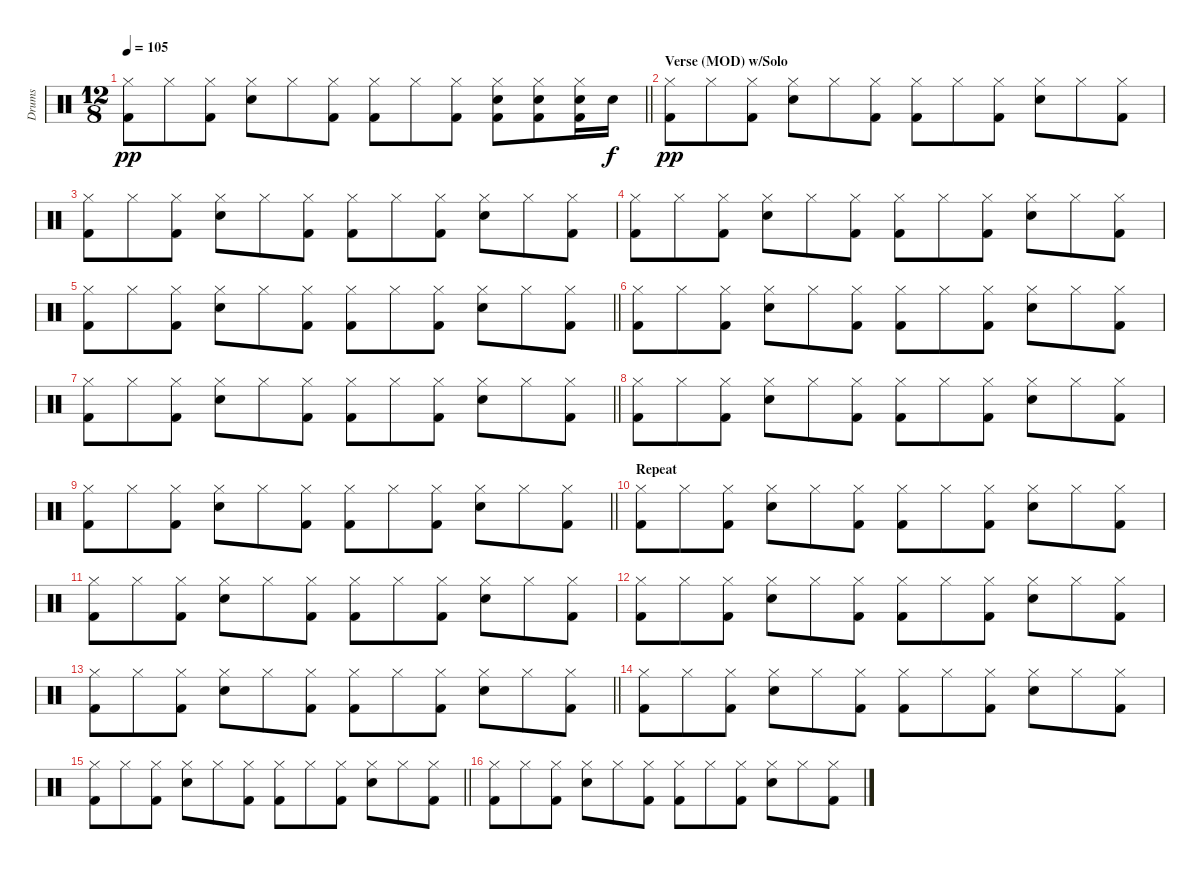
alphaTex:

\track ("Drums" "Drums") {instrument percussion}
\staff
\articulation defaults
\ts (12 8)
\tempo 105
\clef neutral
\barLineRight lightlight
\ks c
("Hi-Hat (closed)" "Kick (hit) 2").8{dy pp} "Hi-Hat (closed)".8 ("Hi-Hat (closed)" "Kick (hit) 2").8 ("Hi-Hat (closed)" "Snare (hit) 2").8 "Hi-Hat (closed)".8 ("Hi-Hat (closed)" "Kick (hit) 2").8 ("Hi-Hat (closed)" "Kick (hit) 2").8 "Hi-Hat (closed)".8 ("Hi-Hat (closed)" "Kick (hit) 2").8 ("Hi-Hat (closed)" "Snare (hit) 2" "Kick (hit) 2").8 ("Hi-Hat (closed)" "Snare (hit) 2" "Kick (hit) 2").8 ("Hi-Hat (closed)" "Snare (hit) 2" "Kick (hit) 2").16 "Snare (hit) 2".16{dy f} |
\section ("" "Verse (MOD) w/Solo")
("Hi-Hat (closed)" "Kick (hit) 2").8{dy pp} "Hi-Hat (closed)".8 ("Hi-Hat (closed)" "Kick (hit) 2").8 ("Hi-Hat (closed)" "Snare (hit) 2").8 "Hi-Hat (closed)".8 ("Hi-Hat (closed)" "Kick (hit) 2").8 ("Hi-Hat (closed)" "Kick (hit) 2").8 "Hi-Hat (closed)".8 ("Hi-Hat (closed)" "Kick (hit) 2").8 ("Hi-Hat (closed)" "Snare (hit) 2").8 "Hi-Hat (closed)".8 ("Hi-Hat (closed)" "Kick (hit) 2").8 |
("Hi-Hat (closed)" "Kick (hit) 2").8 "Hi-Hat (closed)".8 ("Hi-Hat (closed)" "Kick (hit) 2").8 ("Hi-Hat (closed)" "Snare (hit) 2").8 "Hi-Hat (closed)".8 ("Hi-Hat (closed)" "Kick (hit) 2").8 ("Hi-Hat (closed)" "Kick (hit) 2").8 "Hi-Hat (closed)".8 ("Hi-Hat (closed)" "Kick (hit) 2").8 ("Hi-Hat (closed)" "Snare (hit) 2").8 "Hi-Hat (closed)".8 ("Hi-Hat (closed)" "Kick (hit) 2").8 |
("Hi-Hat (closed)" "Kick (hit) 2").8 "Hi-Hat (closed)".8 ("Hi-Hat (closed)" "Kick (hit) 2").8 ("Hi-Hat (closed)" "Snare (hit) 2").8 "Hi-Hat (closed)".8 ("Hi-Hat (closed)" "Kick (hit) 2").8 ("Hi-Hat (closed)" "Kick (hit) 2").8 "Hi-Hat (closed)".8 ("Hi-Hat (closed)" "Kick (hit) 2").8 ("Hi-Hat (closed)" "Snare (hit) 2").8 "Hi-Hat (closed)".8 ("Hi-Hat (closed)" "Kick (hit) 2").8 |
\barLineRight lightlight
("Hi-Hat (closed)" "Kick (hit) 2").8 "Hi-Hat (closed)".8 ("Hi-Hat (closed)" "Kick (hit) 2").8 ("Hi-Hat (closed)" "Snare (hit) 2").8 "Hi-Hat (closed)".8 ("Hi-Hat (closed)" "Kick (hit) 2").8 ("Hi-Hat (closed)" "Kick (hit) 2").8 "Hi-Hat (closed)".8 ("Hi-Hat (closed)" "Kick (hit) 2").8 ("Hi-Hat (closed)" "Snare (hit) 2").8 "Hi-Hat (closed)".8 ("Hi-Hat (closed)" "Kick (hit) 2").8 |
("Hi-Hat (closed)" "Kick (hit) 2").8 "Hi-Hat (closed)".8 ("Hi-Hat (closed)" "Kick (hit) 2").8 ("Hi-Hat (closed)" "Snare (hit) 2").8 "Hi-Hat (closed)".8 ("Hi-Hat (closed)" "Kick (hit) 2").8 ("Hi-Hat (closed)" "Kick (hit) 2").8 "Hi-Hat (closed)".8 ("Hi-Hat (closed)" "Kick (hit) 2").8 ("Hi-Hat (closed)" "Snare (hit) 2").8 "Hi-Hat (closed)".8 ("Hi-Hat (closed)" "Kick (hit) 2").8 |
\barLineRight lightlight
("Hi-Hat (closed)" "Kick (hit) 2").8 "Hi-Hat (closed)".8 ("Hi-Hat (closed)" "Kick (hit) 2").8 ("Hi-Hat (closed)" "Snare (hit) 2").8 "Hi-Hat (closed)".8 ("Hi-Hat (closed)" "Kick (hit) 2").8 ("Hi-Hat (closed)" "Kick (hit) 2").8 "Hi-Hat (closed)".8 ("Hi-Hat (closed)" "Kick (hit) 2").8 ("Hi-Hat (closed)" "Snare (hit) 2").8 "Hi-Hat (closed)".8 ("Hi-Hat (closed)" "Kick (hit) 2").8 |
("Hi-Hat (closed)" "Kick (hit) 2").8 "Hi-Hat (closed)".8 ("Hi-Hat (closed)" "Kick (hit) 2").8 ("Hi-Hat (closed)" "Snare (hit) 2").8 "Hi-Hat (closed)".8 ("Hi-Hat (closed)" "Kick (hit) 2").8 ("Hi-Hat (closed)" "Kick (hit) 2").8 "Hi-Hat (closed)".8 ("Hi-Hat (closed)" "Kick (hit) 2").8 ("Hi-Hat (closed)" "Snare (hit) 2").8 "Hi-Hat (closed)".8 ("Hi-Hat (closed)" "Kick (hit) 2").8 |
\barLineRight lightlight
("Hi-Hat (closed)" "Kick (hit) 2").8 "Hi-Hat (closed)".8 ("Hi-Hat (closed)" "Kick (hit) 2").8 ("Hi-Hat (closed)" "Snare (hit) 2").8 "Hi-Hat (closed)".8 ("Hi-Hat (closed)" "Kick (hit) 2").8 ("Hi-Hat (closed)" "Kick (hit) 2").8 "Hi-Hat (closed)".8 ("Hi-Hat (closed)" "Kick (hit) 2").8 ("Hi-Hat (closed)" "Snare (hit) 2").8 "Hi-Hat (closed)".8 ("Hi-Hat (closed)" "Kick (hit) 2").8 |
\section ("" "Repeat")
("Hi-Hat (closed)" "Kick (hit) 2").8 "Hi-Hat (closed)".8 ("Hi-Hat (closed)" "Kick (hit) 2").8 ("Hi-Hat (closed)" "Snare (hit) 2").8 "Hi-Hat (closed)".8 ("Hi-Hat (closed)" "Kick (hit) 2").8 ("Hi-Hat (closed)" "Kick (hit) 2").8 "Hi-Hat (closed)".8 ("Hi-Hat (closed)" "Kick (hit) 2").8 ("Hi-Hat (closed)" "Snare (hit) 2").8 "Hi-Hat (closed)".8 ("Hi-Hat (closed)" "Kick (hit) 2").8 |
("Hi-Hat (closed)" "Kick (hit) 2").8 "Hi-Hat (closed)".8 ("Hi-Hat (closed)" "Kick (hit) 2").8 ("Hi-Hat (closed)" "Snare (hit) 2").8 "Hi-Hat (closed)".8 ("Hi-Hat (closed)" "Kick (hit) 2").8 ("Hi-Hat (closed)" "Kick (hit) 2").8 "Hi-Hat (closed)".8 ("Hi-Hat (closed)" "Kick (hit) 2").8 ("Hi-Hat (closed)" "Snare (hit) 2").8 "Hi-Hat (closed)".8 ("Hi-Hat (closed)" "Kick (hit) 2").8 |
("Hi-Hat (closed)" "Kick (hit) 2").8 "Hi-Hat (closed)".8 ("Hi-Hat (closed)" "Kick (hit) 2").8 ("Hi-Hat (closed)" "Snare (hit) 2").8 "Hi-Hat (closed)".8 ("Hi-Hat (closed)" "Kick (hit) 2").8 ("Hi-Hat (closed)" "Kick (hit) 2").8 "Hi-Hat (closed)".8 ("Hi-Hat (closed)" "Kick (hit) 2").8 ("Hi-Hat (closed)" "Snare (hit) 2").8 "Hi-Hat (closed)".8 ("Hi-Hat (closed)" "Kick (hit) 2").8 |
\barLineRight lightlight
("Hi-Hat (closed)" "Kick (hit) 2").8 "Hi-Hat (closed)".8 ("Hi-Hat (closed)" "Kick (hit) 2").8 ("Hi-Hat (closed)" "Snare (hit) 2").8 "Hi-Hat (closed)".8 ("Hi-Hat (closed)" "Kick (hit) 2").8 ("Hi-Hat (closed)" "Kick (hit) 2").8 "Hi-Hat (closed)".8 ("Hi-Hat (closed)" "Kick (hit) 2").8 ("Hi-Hat (closed)" "Snare (hit) 2").8 "Hi-Hat (closed)".8 ("Hi-Hat (closed)" "Kick (hit) 2").8 |
("Hi-Hat (closed)" "Kick (hit) 2").8 "Hi-Hat (closed)".8 ("Hi-Hat (closed)" "Kick (hit) 2").8 ("Hi-Hat (closed)" "Snare (hit) 2").8 "Hi-Hat (closed)".8 ("Hi-Hat (closed)" "Kick (hit) 2").8 ("Hi-Hat (closed)" "Kick (hit) 2").8 "Hi-Hat (closed)".8 ("Hi-Hat (closed)" "Kick (hit) 2").8 ("Hi-Hat (closed)" "Snare (hit) 2").8 "Hi-Hat (closed)".8 ("Hi-Hat (closed)" "Kick (hit) 2").8 |
\barLineRight lightlight
("Hi-Hat (closed)" "Kick (hit) 2").8 "Hi-Hat (closed)".8 ("Hi-Hat (closed)" "Kick (hit) 2").8 ("Hi-Hat (closed)" "Snare (hit) 2").8 "Hi-Hat (closed)".8 ("Hi-Hat (closed)" "Kick (hit) 2").8 ("Hi-Hat (closed)" "Kick (hit) 2").8 "Hi-Hat (closed)".8 ("Hi-Hat (closed)" "Kick (hit) 2").8 ("Hi-Hat (closed)" "Snare (hit) 2").8 "Hi-Hat (closed)".8 ("Hi-Hat (closed)" "Kick (hit) 2").8 |
("Hi-Hat (closed)" "Kick (hit) 2").8 "Hi-Hat (closed)".8 ("Hi-Hat (closed)" "Kick (hit) 2").8 ("Hi-Hat (closed)" "Snare (hit) 2").8 "Hi-Hat (closed)".8 ("Hi-Hat (closed)" "Kick (hit) 2").8 ("Hi-Hat (closed)" "Kick (hit) 2").8 "Hi-Hat (closed)".8 ("Hi-Hat (closed)" "Kick (hit) 2").8 ("Hi-Hat (closed)" "Snare (hit) 2").8 "Hi-Hat (closed)".8 ("Hi-Hat (closed)" "Kick (hit) 2").8
